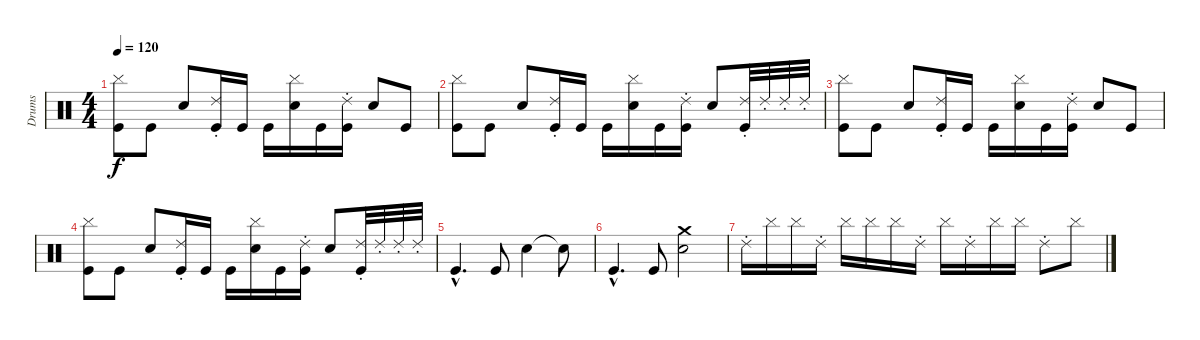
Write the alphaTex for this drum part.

\track ("Drums" "Drums") {instrument percussion}
\staff {score}
\articulation defaults
\ts (4 4)
\tempo 120
\clef neutral
\ks c
("Kick (hit)" "Cymbal (hit)").8{dy f} "Kick (hit)".8 "Electric Snare (hit)".8 ("Kick (hit)" "Ride (choke) 2").16 "Kick (hit)".16 "Kick (hit)".16 ("Electric Snare (hit)" "Cymbal (hit)").16 "Kick (hit)".16 ("Kick (hit)" "Ride (choke) 2").16 "Electric Snare (hit)".8 "Kick (hit)".8 |
("Kick (hit)" "Cymbal (hit)").8 "Kick (hit)".8 "Electric Snare (hit)".8 ("Kick (hit)" "Ride (choke) 2").16 "Kick (hit)".16 "Kick (hit)".16 ("Electric Snare (hit)" "Cymbal (hit)").16 "Kick (hit)".16 ("Kick (hit)" "Ride (choke) 2").16 "Electric Snare (hit)".8 ("Kick (hit)" "Ride (choke) 2").32 "Ride (choke) 2".32 "Ride (choke) 2".32 "Ride (choke) 2".32 |
("Kick (hit)" "Cymbal (hit)").8 "Kick (hit)".8 "Electric Snare (hit)".8 ("Kick (hit)" "Ride (choke) 2").16 "Kick (hit)".16 "Kick (hit)".16 ("Electric Snare (hit)" "Cymbal (hit)").16 "Kick (hit)".16 ("Kick (hit)" "Ride (choke) 2").16 "Electric Snare (hit)".8 "Kick (hit)".8 |
("Kick (hit)" "Cymbal (hit)").8 "Kick (hit)".8 "Electric Snare (hit)".8 ("Kick (hit)" "Ride (choke) 2").16 "Kick (hit)".16 "Kick (hit)".16 ("Electric Snare (hit)" "Cymbal (hit)").16 "Kick (hit)".16 ("Kick (hit)" "Ride (choke) 2").16 "Electric Snare (hit)".8 ("Kick (hit)" "Ride (choke) 2").32 "Ride (choke) 2".32 "Ride (choke) 2".32 "Ride (choke) 2".32 |
"Kick (hit)"{hac}.4{d} "Kick (hit)".8 "Electric Snare (hit)".4 "Snare (hit)"{t}.8 |
"Kick (hit)"{hac}.4{d} "Kick (hit)".8 ("Electric Snare (hit)" "Crash medium (hit)").2 |
"Ride (choke) 2".16 "Cymbal (hit)".16 "Cymbal (hit)".16 "Ride (choke) 2".16 "Cymbal (hit)".16 "Cymbal (hit)".16 "Cymbal (hit)".16 "Ride (choke) 2".16 "Cymbal (hit)".16 "Ride (choke) 2".16 "Cymbal (hit)".16 "Cymbal (hit)".16 "Ride (choke) 2".8 "Cymbal (hit)".8
